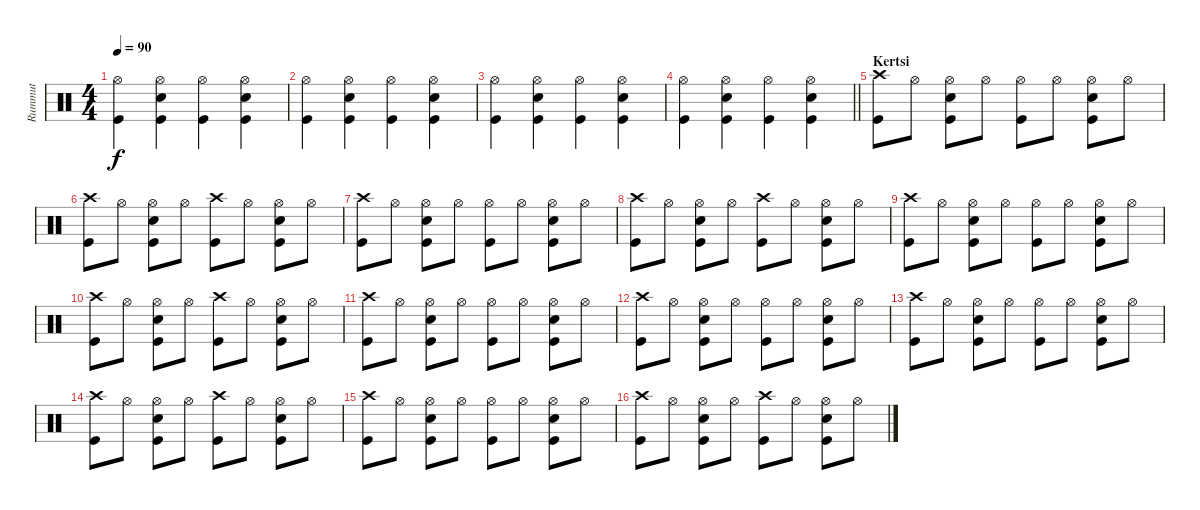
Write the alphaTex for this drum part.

\track ("Rummut" "Rummut") {instrument percussion}
\staff {score}
\articulation defaults
\ts (4 4)
\tempo 90
\clef neutral
\ks c
("Hi-Hat (open)" "Kick (hit)").4{dy f} ("Hi-Hat (open)" "Electric Snare (hit)" "Kick (hit)").4 ("Hi-Hat (open)" "Kick (hit)").4 ("Hi-Hat (open)" "Electric Snare (hit)" "Kick (hit)").4 |
("Hi-Hat (open)" "Kick (hit)").4 ("Hi-Hat (open)" "Electric Snare (hit)" "Kick (hit)").4 ("Hi-Hat (open)" "Kick (hit)").4 ("Hi-Hat (open)" "Electric Snare (hit)" "Kick (hit)").4 |
("Hi-Hat (open)" "Kick (hit)").4 ("Hi-Hat (open)" "Electric Snare (hit)" "Kick (hit)").4 ("Hi-Hat (open)" "Kick (hit)").4 ("Hi-Hat (open)" "Electric Snare (hit)" "Kick (hit)").4 |
\barLineRight lightlight
("Hi-Hat (open)" "Kick (hit)").4 ("Hi-Hat (open)" "Electric Snare (hit)" "Kick (hit)").4 ("Hi-Hat (open)" "Kick (hit)").4 ("Hi-Hat (open)" "Electric Snare (hit)" "Kick (hit)").4 |
\section ("" "Kertsi")
("Crash high (hit)" "Kick (hit)").8 "Hi-Hat (open)".8 ("Hi-Hat (open)" "Electric Snare (hit)" "Kick (hit)").8 "Hi-Hat (open)".8 ("Hi-Hat (open)" "Kick (hit)").8 "Hi-Hat (open)".8 ("Hi-Hat (open)" "Electric Snare (hit)" "Kick (hit)").8 "Hi-Hat (open)".8 |
("Crash high (hit)" "Kick (hit)").8 "Hi-Hat (open)".8 ("Hi-Hat (open)" "Electric Snare (hit)" "Kick (hit)").8 "Hi-Hat (open)".8 ("Crash high (hit)" "Kick (hit)").8 "Hi-Hat (open)".8 ("Hi-Hat (open)" "Electric Snare (hit)" "Kick (hit)").8 "Hi-Hat (open)".8 |
("Crash high (hit)" "Kick (hit)").8 "Hi-Hat (open)".8 ("Hi-Hat (open)" "Electric Snare (hit)" "Kick (hit)").8 "Hi-Hat (open)".8 ("Hi-Hat (open)" "Kick (hit)").8 "Hi-Hat (open)".8 ("Hi-Hat (open)" "Electric Snare (hit)" "Kick (hit)").8 "Hi-Hat (open)".8 |
("Crash high (hit)" "Kick (hit)").8 "Hi-Hat (open)".8 ("Hi-Hat (open)" "Electric Snare (hit)" "Kick (hit)").8 "Hi-Hat (open)".8 ("Crash high (hit)" "Kick (hit)").8 "Hi-Hat (open)".8 ("Hi-Hat (open)" "Electric Snare (hit)" "Kick (hit)").8 "Hi-Hat (open)".8 |
("Crash high (hit)" "Kick (hit)").8 "Hi-Hat (open)".8 ("Hi-Hat (open)" "Electric Snare (hit)" "Kick (hit)").8 "Hi-Hat (open)".8 ("Hi-Hat (open)" "Kick (hit)").8 "Hi-Hat (open)".8 ("Hi-Hat (open)" "Electric Snare (hit)" "Kick (hit)").8 "Hi-Hat (open)".8 |
("Crash high (hit)" "Kick (hit)").8 "Hi-Hat (open)".8 ("Hi-Hat (open)" "Electric Snare (hit)" "Kick (hit)").8 "Hi-Hat (open)".8 ("Crash high (hit)" "Kick (hit)").8 "Hi-Hat (open)".8 ("Hi-Hat (open)" "Electric Snare (hit)" "Kick (hit)").8 "Hi-Hat (open)".8 |
("Crash high (hit)" "Kick (hit)").8 "Hi-Hat (open)".8 ("Hi-Hat (open)" "Electric Snare (hit)" "Kick (hit)").8 "Hi-Hat (open)".8 ("Hi-Hat (open)" "Kick (hit)").8 "Hi-Hat (open)".8 ("Hi-Hat (open)" "Electric Snare (hit)" "Kick (hit)").8 "Hi-Hat (open)".8 |
("Crash high (hit)" "Kick (hit)").8 "Hi-Hat (open)".8 ("Hi-Hat (open)" "Electric Snare (hit)" "Kick (hit)").8 "Hi-Hat (open)".8 ("Hi-Hat (open)" "Kick (hit)").8 "Hi-Hat (open)".8 ("Hi-Hat (open)" "Electric Snare (hit)" "Kick (hit)").8 "Hi-Hat (open)".8 |
("Crash high (hit)" "Kick (hit)").8 "Hi-Hat (open)".8 ("Hi-Hat (open)" "Electric Snare (hit)" "Kick (hit)").8 "Hi-Hat (open)".8 ("Hi-Hat (open)" "Kick (hit)").8 "Hi-Hat (open)".8 ("Hi-Hat (open)" "Electric Snare (hit)" "Kick (hit)").8 "Hi-Hat (open)".8 |
("Crash high (hit)" "Kick (hit)").8 "Hi-Hat (open)".8 ("Hi-Hat (open)" "Electric Snare (hit)" "Kick (hit)").8 "Hi-Hat (open)".8 ("Crash high (hit)" "Kick (hit)").8 "Hi-Hat (open)".8 ("Hi-Hat (open)" "Electric Snare (hit)" "Kick (hit)").8 "Hi-Hat (open)".8 |
("Crash high (hit)" "Kick (hit)").8 "Hi-Hat (open)".8 ("Hi-Hat (open)" "Electric Snare (hit)" "Kick (hit)").8 "Hi-Hat (open)".8 ("Hi-Hat (open)" "Kick (hit)").8 "Hi-Hat (open)".8 ("Hi-Hat (open)" "Electric Snare (hit)" "Kick (hit)").8 "Hi-Hat (open)".8 |
("Crash high (hit)" "Kick (hit)").8 "Hi-Hat (open)".8 ("Hi-Hat (open)" "Electric Snare (hit)" "Kick (hit)").8 "Hi-Hat (open)".8 ("Crash high (hit)" "Kick (hit)").8 "Hi-Hat (open)".8 ("Hi-Hat (open)" "Electric Snare (hit)" "Kick (hit)").8 "Hi-Hat (open)".8
